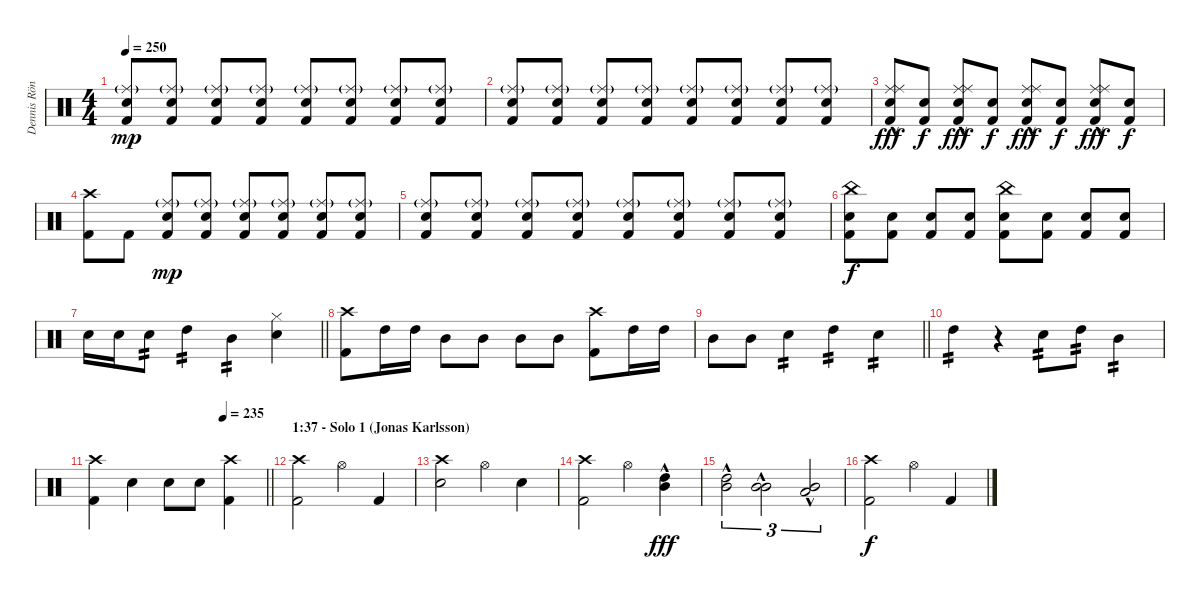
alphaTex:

\track ("Dennis Röndum" "Dennis Rön") {instrument percussion}
\staff {score}
\articulation defaults
\ts (4 4)
\tempo 250
\clef neutral
\ks c
("Snare (hit) 2" "Ride (middle)"{g} "Kick (hit) 2").8{dy mp} ("Snare (hit) 2" "Ride (middle)"{g} "Kick (hit) 2").8 ("Snare (hit) 2" "Ride (middle)"{g} "Kick (hit) 2").8 ("Snare (hit) 2" "Ride (middle)"{g} "Kick (hit) 2").8 ("Snare (hit) 2" "Ride (middle)"{g} "Kick (hit) 2").8 ("Snare (hit) 2" "Ride (middle)"{g} "Kick (hit) 2").8 ("Snare (hit) 2" "Ride (middle)"{g} "Kick (hit) 2").8 ("Snare (hit) 2" "Ride (middle)"{g} "Kick (hit) 2").8 |
("Snare (hit) 2" "Ride (middle)"{g} "Kick (hit) 2").8 ("Snare (hit) 2" "Ride (middle)"{g} "Kick (hit) 2").8 ("Snare (hit) 2" "Ride (middle)"{g} "Kick (hit) 2").8 ("Snare (hit) 2" "Ride (middle)"{g} "Kick (hit) 2").8 ("Snare (hit) 2" "Ride (middle)"{g} "Kick (hit) 2").8 ("Snare (hit) 2" "Ride (middle)"{g} "Kick (hit) 2").8 ("Snare (hit) 2" "Ride (middle)"{g} "Kick (hit) 2").8 ("Snare (hit) 2" "Ride (middle)"{g} "Kick (hit) 2").8 |
("Ride (middle)" "Snare (hit) 2" "Ride (middle)"{hac} "Kick (hit) 2").8{dy fff} ("Snare (hit) 2" "Kick (hit) 2").8{dy f} ("Ride (middle)" "Snare (hit) 2" "Ride (middle)"{hac} "Kick (hit) 2").8{dy fff} ("Snare (hit) 2" "Kick (hit) 2").8{dy f} ("Ride (middle)" "Snare (hit) 2" "Ride (middle)"{hac} "Kick (hit) 2").8{dy fff} ("Snare (hit) 2" "Kick (hit) 2").8{dy f} ("Ride (middle)" "Snare (hit) 2" "Ride (middle)"{hac} "Kick (hit) 2").8{dy fff} ("Snare (hit) 2" "Kick (hit) 2").8{dy f} |
("Crash high (hit)" "Kick (hit) 2").8 "Kick (hit) 2".8 ("Snare (hit) 2" "Ride (middle)"{g} "Kick (hit) 2").8{dy mp} ("Snare (hit) 2" "Ride (middle)"{g} "Kick (hit) 2").8 ("Snare (hit) 2" "Ride (middle)"{g} "Kick (hit) 2").8 ("Snare (hit) 2" "Ride (middle)"{g} "Kick (hit) 2").8 ("Snare (hit) 2" "Ride (middle)"{g} "Kick (hit) 2").8 ("Snare (hit) 2" "Ride (middle)"{g} "Kick (hit) 2").8 |
("Snare (hit) 2" "Ride (middle)"{g} "Kick (hit) 2").8 ("Snare (hit) 2" "Ride (middle)"{g} "Kick (hit) 2").8 ("Snare (hit) 2" "Ride (middle)"{g} "Kick (hit) 2").8 ("Snare (hit) 2" "Ride (middle)"{g} "Kick (hit) 2").8 ("Snare (hit) 2" "Ride (middle)"{g} "Kick (hit) 2").8 ("Snare (hit) 2" "Ride (middle)"{g} "Kick (hit) 2").8 ("Snare (hit) 2" "Ride (middle)"{g} "Kick (hit) 2").8 ("Snare (hit) 2" "Ride (middle)"{g} "Kick (hit) 2").8 |
("Snare (hit) 2" "China (hit)" "Kick (hit) 2").8{dy f} ("Snare (hit) 2" "Kick (hit) 2").8 ("Snare (hit) 2" "Kick (hit) 2").8 ("Snare (hit) 2" "Kick (hit) 2").8 ("Snare (hit) 2" "China (hit)" "Kick (hit) 2").8 ("Snare (hit) 2" "Kick (hit) 2").8 ("Snare (hit) 2" "Kick (hit) 2").8 ("Snare (hit) 2" "Kick (hit) 2").8 |
\barLineRight lightlight "Snare (hit) 2".16 "Snare (hit) 2".16 "Snare (hit) 2".8{tp 2} "High Tom (hit)".4{tp 2} "Mid Tom (hit)".4{tp 2}
("Hi-Hat (closed)" "Snare (hit) 2").4 |
("Crash high (hit)" "Kick (hit) 2").8 "High Tom (hit)".16 "High Tom (hit)".16 "Mid Tom (hit)".8 "Mid Tom (hit)".8 "Mid Tom (hit)".8 "Mid Tom (hit)".8 ("Crash high (hit)" "Kick (hit) 2").8 "High Tom (hit)".16 "High Tom (hit)".16 |
\barLineRight lightlight "Mid Tom (hit)".8 "Mid Tom (hit)".8 "Snare (hit) 2".4{tp 2} "High Tom (hit)".4{tp 2} "Snare (hit) 2".4{tp 2}
|
"High Tom (hit)".4{tp 2} r.4 "Snare (hit) 2".8{tp 2} "High Tom (hit)".8{tp 2} "Mid Tom (hit)".4{tp 2} |
\tempo (235 0.75)
\barLineRight lightlight
("Crash high (hit)" "Kick (hit) 2").4 "Snare (hit) 2".4 "Snare (hit) 2".8 "Snare (hit) 2".8 ("Crash high (hit)" "Kick (hit) 2").4 |
\section ("" "1:37 - Solo 1 (Jonas Karlsson)")
("Crash high (hit)" "Kick (hit) 2").2 "Hi-Hat (open)".4 "Kick (hit) 2".4 |
("Crash high (hit)" "Snare (hit) 2").2 "Hi-Hat (open)".4 "Snare (hit) 2".4 |
("Crash high (hit)" "Kick (hit) 2").2 "Hi-Hat (open)".4 ("Mid Tom (hit)"{hac} "High Tom (hit)").4{dy fff} |
("Mid Tom (hit)" "High Tom (hit)"{hac}).2{tu (3 2)} ("Mid Tom (hit)" "Mid Tom (hit)"{hac}).2{tu (3 2)} ("Mid Tom (hit)" "Low Floor Tom (hit)"{hac}).2{tu (3 2)} |
("Crash high (hit)" "Kick (hit) 2").2{dy f} "Hi-Hat (open)".4 "Kick (hit) 2".4
